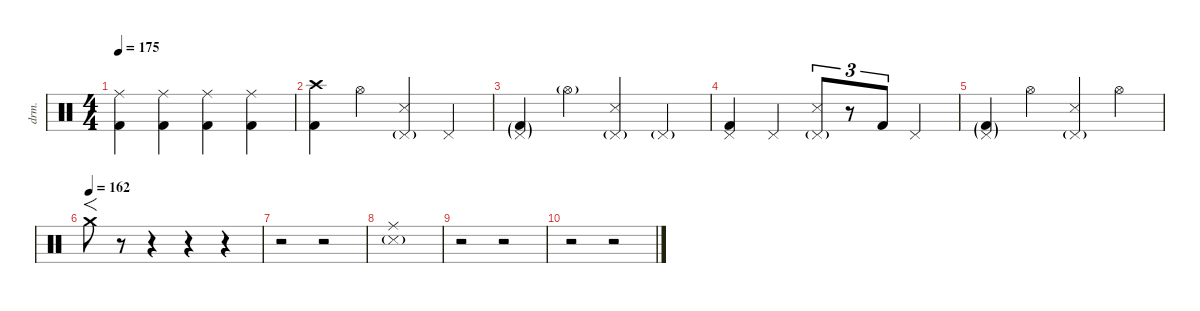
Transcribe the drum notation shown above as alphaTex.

\defaultSystemsLayout 4
\hideDynamics
\bracketExtendMode nobrackets
\otherSystemsTrackNameOrientation horizontal
\track ("Percussion" "drm.") {instrument percussion}
\staff {score}
\articulation defaults
\ts (4 4)
\tempo 175
\clef neutral
\ks c
("Ride (middle)" "Kick (hit) 2").4{dy f} ("Ride (middle)" "Kick (hit) 2").4 ("Ride (middle)" "Kick (hit) 2").4 ("Ride (middle)" "Kick (hit) 2").4 |
("Crash high (hit)" "Kick (hit) 2").4{dy fff} "Hi-Hat (open)".4 ("Pedal Hi-Hat (hit)"{g} "Snare (side stick) 3").4 "Pedal Hi-Hat (hit)".4{dy f} |
("Pedal Hi-Hat (hit)"{g} "Kick (hit) 2"{g}).4 "Hi-Hat (open)"{g}.4 ("Pedal Hi-Hat (hit)"{g} "Snare (side stick) 3").4 "Pedal Hi-Hat (hit)"{g}.4 |
("Pedal Hi-Hat (hit)" "Kick (hit) 2").4 "Pedal Hi-Hat (hit)".4 ("Pedal Hi-Hat (hit)"{g} "Snare (side stick) 3").8{tu (3 2) dy fff} r.8{tu (3 2)} "Kick (hit) 2".8{tu (3 2) dy f} "Pedal Hi-Hat (hit)".4 |
("Pedal Hi-Hat (hit)"{g} "Kick (hit) 2"{g}).4 "Hi-Hat (open)".4 ("Pedal Hi-Hat (hit)"{g} "Snare (side stick) 3").4 "Hi-Hat (open)".4 |
\tempo (162)
"Crash medium (hit)".8{f} r.8 r.4 r.4 r.4 |
r.2 r.2 |
("Ride (middle)" "Snare (side stick) 3"{g}).1 |
r.2 r.2 |
r.2 r.2
